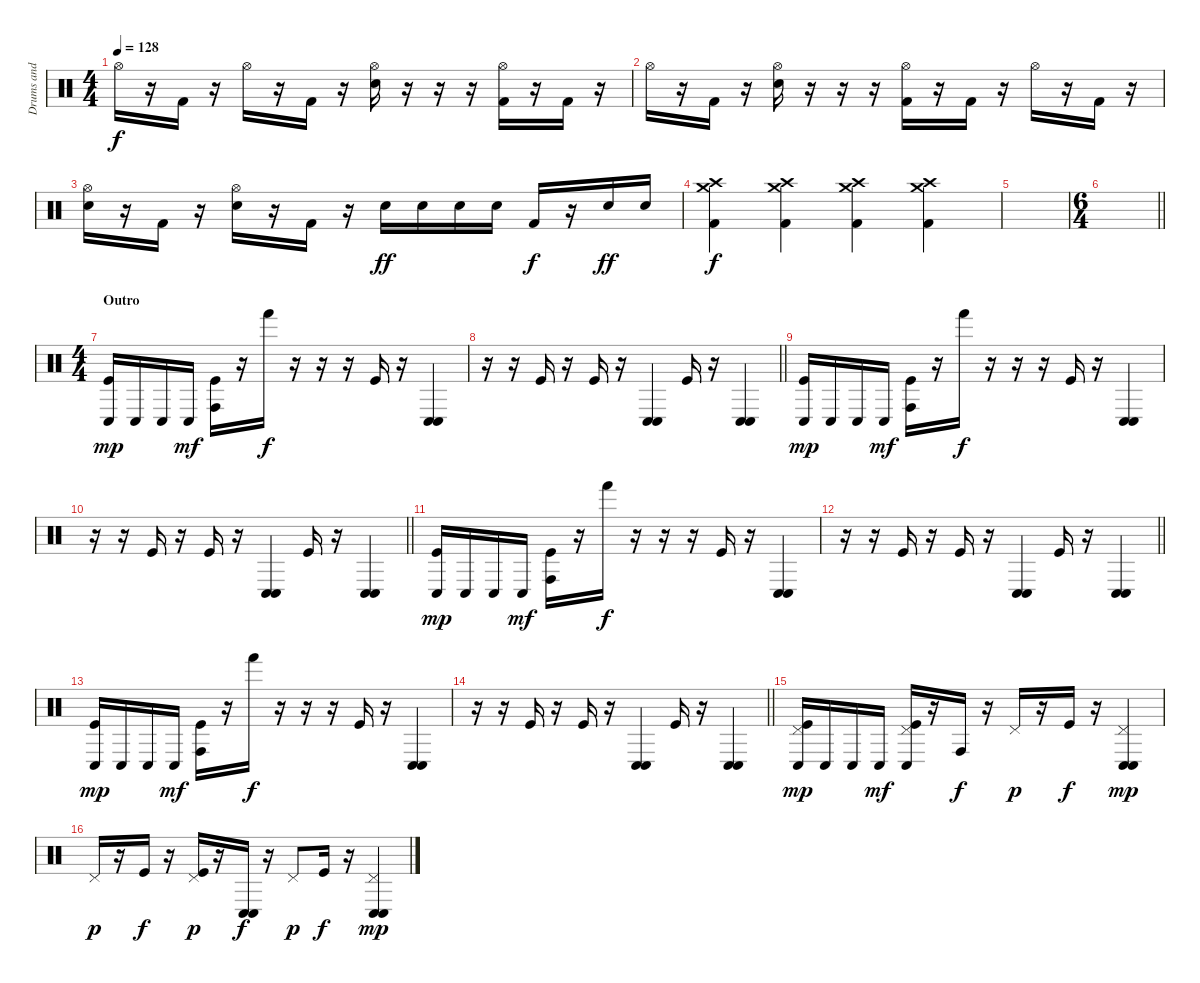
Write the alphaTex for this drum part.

\track ("Drums and Percussions" "Drums and ") {instrument percussion}
\staff {score}
\articulation defaults
\ts (4 4)
\tempo 128
\clef neutral
\ks c "Hi-Hat (open)".16{dy f}
r.16 "Kick (hit) 2".16 r.16 "Hi-Hat (open)".16 r.16 "Kick (hit) 2".16 r.16 ("Hi-Hat (open)" "Electric Snare (hit)").16 r.16 r.16 r.16 ("Hi-Hat (open)" "Kick (hit) 2").16 r.16 "Kick (hit) 2".16 r.16 |
"Hi-Hat (open)".16 r.16 "Kick (hit) 2".16 r.16 ("Hi-Hat (open)" "Electric Snare (hit)").16 r.16 r.16 r.16 ("Hi-Hat (open)" "Kick (hit) 2").16 r.16 "Kick (hit) 2".16 r.16 "Hi-Hat (open)".16 r.16 "Kick (hit) 2".16 r.16 |
("Hi-Hat (open)" "Electric Snare (hit)").16 r.16 "Kick (hit) 2".16 r.16 ("Hi-Hat (open)" "Electric Snare (hit)").16 r.16 "Kick (hit) 2".16 r.16 "Electric Snare (hit)".16{dy ff} "Electric Snare (hit)".16 "Electric Snare (hit)".16 "Electric Snare (hit)".16 "Kick (hit) 2".16{dy f} r.16 "Electric Snare (hit)".16{dy ff} "Electric Snare (hit)".16 |
("Crash medium (hit)" "Crash high (hit)" "Kick (hit) 2").4{dy f} ("Crash medium (hit)" "Crash high (hit)" "Kick (hit) 2").4 ("Crash medium (hit)" "Crash high (hit)" "Kick (hit) 2").4 ("Crash medium (hit)" "Crash high (hit)" "Kick (hit) 2").4 |
|
\ts (6 4)
\barLineRight lightlight
|
\ts (4 4)
\section ("" "Outro")
("Conga low (hit)" "Kick (hit)").16{dy mp} "Conga low (hit)".16 "Conga low (hit)".16 "Conga low (hit)".16{dy mf} ("Conga high (hit)" "Kick (hit)").16 r.16 "Hand (hit)".16{dy f} r.16 r.16 r.16 "Kick (hit)".16 r.16 ("Conga low (hit)" "Conga low (hit)").4{bd 120} |
\barLineRight lightlight
r.16 r.16 "Kick (hit)".16 r.16 "Kick (hit)".16 r.16 ("Conga low (hit)" "Conga low (hit)").4{bd 120} "Kick (hit)".16 r.16 ("Conga low (hit)" "Conga low (hit)").4{bd 120} |
("Conga low (hit)" "Kick (hit)").16{dy mp} "Conga low (hit)".16 "Conga low (hit)".16 "Conga low (hit)".16{dy mf} ("Conga high (hit)" "Kick (hit)").16 r.16 "Hand (hit)".16{dy f} r.16 r.16 r.16 "Kick (hit)".16 r.16 ("Conga low (hit)" "Conga low (hit)").4{bd 120} |
\barLineRight lightlight
r.16 r.16 "Kick (hit)".16 r.16 "Kick (hit)".16 r.16 ("Conga low (hit)" "Conga low (hit)").4{bd 120} "Kick (hit)".16 r.16 ("Conga low (hit)" "Conga low (hit)").4{bd 120} |
("Conga low (hit)" "Kick (hit)").16{dy mp} "Conga low (hit)".16 "Conga low (hit)".16 "Conga low (hit)".16{dy mf} ("Conga high (hit)" "Kick (hit)").16 r.16 "Hand (hit)".16{dy f} r.16 r.16 r.16 "Kick (hit)".16 r.16 ("Conga low (hit)" "Conga low (hit)").4{bd 120} |
\barLineRight lightlight
r.16 r.16 "Kick (hit)".16 r.16 "Kick (hit)".16 r.16 ("Conga low (hit)" "Conga low (hit)").4{bd 120} "Kick (hit)".16 r.16 ("Conga low (hit)" "Conga low (hit)").4{bd 120} |
("Conga low (hit)" "Kick (hit)").16{dy mp} "Conga low (hit)".16 "Conga low (hit)".16 "Conga low (hit)".16{dy mf} ("Conga high (hit)" "Kick (hit)").16 r.16 "Hand (hit)".16{dy f} r.16 r.16 r.16 "Kick (hit)".16 r.16 ("Conga low (hit)" "Conga low (hit)").4{bd 120} |
\barLineRight lightlight
r.16 r.16 "Kick (hit)".16 r.16 "Kick (hit)".16 r.16 ("Conga low (hit)" "Conga low (hit)").4{bd 120} "Kick (hit)".16 r.16 ("Conga low (hit)" "Conga low (hit)").4{bd 120} |
("Pedal Hi-Hat (hit)" "Conga low (hit)" "Kick (hit)").16{dy mp} "Conga low (hit)".16 "Conga low (hit)".16 "Conga low (hit)".16{dy mf} ("Pedal Hi-Hat (hit)" "Conga low (hit)" "Kick (hit)").16 r.16 "Conga high (hit)".16{dy f} r.16 "Pedal Hi-Hat (hit)".16{dy p} r.16 "Kick (hit)".16{dy f} r.16 ("Conga low (hit)" "Conga low (hit)" "Pedal Hi-Hat (hit)").4{bd 120 dy mp} |
"Pedal Hi-Hat (hit)".16{dy p} r.16 "Kick (hit)".16{dy f} r.16 ("Pedal Hi-Hat (hit)" "Kick (hit)").16{dy p} r.16 ("Conga low (hit)" "Conga low (hit)").16{bd 120 dy f} r.16 "Pedal Hi-Hat (hit)".8{dy p} "Kick (hit)".16{dy f} r.16 ("Conga low (hit)" "Conga low (hit)" "Pedal Hi-Hat (hit)").4{bd 120 dy mp}
